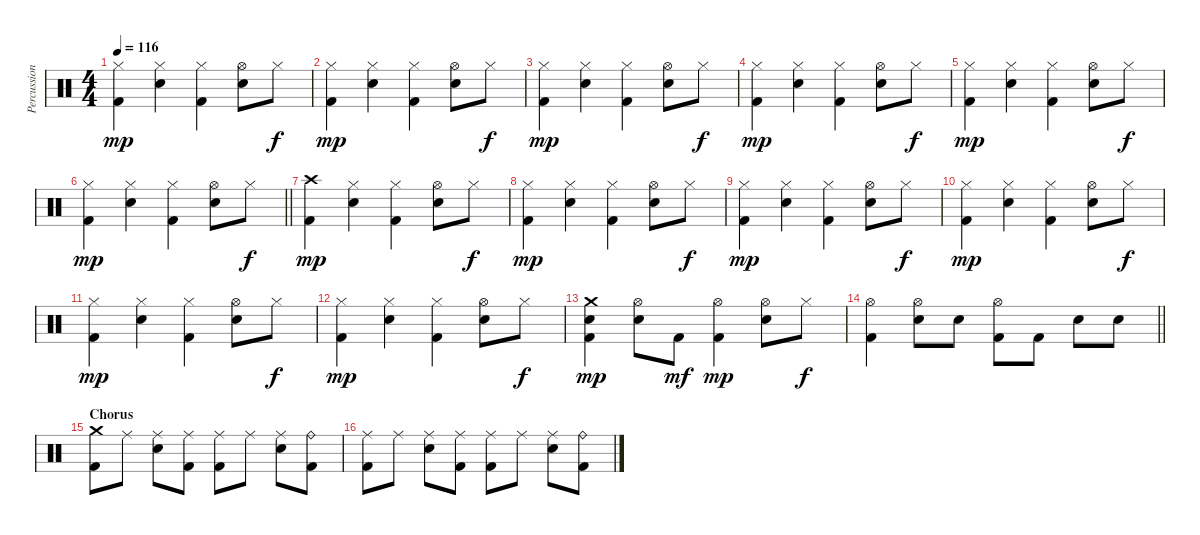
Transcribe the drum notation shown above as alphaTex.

\track ("Percussion" "Percussion") {instrument percussion}
\staff {score}
\articulation defaults
\ts (4 4)
\tempo 116
\clef neutral
\ks c
("Hi-Hat (closed)" "Kick (hit) 2").4{dy mp} ("Hi-Hat (closed)" "Snare (hit) 2").4 ("Hi-Hat (closed)" "Kick (hit) 2").4 ("Hi-Hat (open)" "Snare (hit) 2").8 "Hi-Hat (closed)".8{dy f} |
("Hi-Hat (closed)" "Kick (hit) 2").4{dy mp} ("Hi-Hat (closed)" "Snare (hit) 2").4 ("Hi-Hat (closed)" "Kick (hit) 2").4 ("Hi-Hat (open)" "Snare (hit) 2").8 "Hi-Hat (closed)".8{dy f} |
("Hi-Hat (closed)" "Kick (hit) 2").4{dy mp} ("Hi-Hat (closed)" "Snare (hit) 2").4 ("Hi-Hat (closed)" "Kick (hit) 2").4 ("Hi-Hat (open)" "Snare (hit) 2").8 "Hi-Hat (closed)".8{dy f} |
("Hi-Hat (closed)" "Kick (hit) 2").4{dy mp} ("Hi-Hat (closed)" "Snare (hit) 2").4 ("Hi-Hat (closed)" "Kick (hit) 2").4 ("Hi-Hat (open)" "Snare (hit) 2").8 "Hi-Hat (closed)".8{dy f} |
("Hi-Hat (closed)" "Kick (hit) 2").4{dy mp} ("Hi-Hat (closed)" "Snare (hit) 2").4 ("Hi-Hat (closed)" "Kick (hit) 2").4 ("Hi-Hat (open)" "Snare (hit) 2").8 "Hi-Hat (closed)".8{dy f} |
\barLineRight lightlight
("Hi-Hat (closed)" "Kick (hit) 2").4{dy mp} ("Hi-Hat (closed)" "Snare (hit) 2").4 ("Hi-Hat (closed)" "Kick (hit) 2").4 ("Hi-Hat (open)" "Snare (hit) 2").8 "Hi-Hat (closed)".8{dy f} |
("Crash high (hit)" "Kick (hit) 2").4{dy mp} ("Hi-Hat (closed)" "Snare (hit) 2").4 ("Hi-Hat (closed)" "Kick (hit) 2").4 ("Hi-Hat (open)" "Snare (hit) 2").8 "Hi-Hat (closed)".8{dy f} |
("Hi-Hat (closed)" "Kick (hit) 2").4{dy mp} ("Hi-Hat (closed)" "Snare (hit) 2").4 ("Hi-Hat (closed)" "Kick (hit) 2").4 ("Hi-Hat (open)" "Snare (hit) 2").8 "Hi-Hat (closed)".8{dy f} |
("Hi-Hat (closed)" "Kick (hit) 2").4{dy mp} ("Hi-Hat (closed)" "Snare (hit) 2").4 ("Hi-Hat (closed)" "Kick (hit) 2").4 ("Hi-Hat (open)" "Snare (hit) 2").8 "Hi-Hat (closed)".8{dy f} |
("Hi-Hat (closed)" "Kick (hit) 2").4{dy mp} ("Hi-Hat (closed)" "Snare (hit) 2").4 ("Hi-Hat (closed)" "Kick (hit) 2").4 ("Hi-Hat (open)" "Snare (hit) 2").8 "Hi-Hat (closed)".8{dy f} |
("Hi-Hat (closed)" "Kick (hit) 2").4{dy mp} ("Hi-Hat (closed)" "Snare (hit) 2").4 ("Hi-Hat (closed)" "Kick (hit) 2").4 ("Hi-Hat (open)" "Snare (hit) 2").8 "Hi-Hat (closed)".8{dy f} |
("Hi-Hat (closed)" "Kick (hit) 2").4{dy mp} ("Hi-Hat (closed)" "Snare (hit) 2").4 ("Hi-Hat (closed)" "Kick (hit) 2").4 ("Hi-Hat (open)" "Snare (hit) 2").8 "Hi-Hat (closed)".8{dy f} |
("Crash medium (hit)" "Snare (hit) 2" "Kick (hit) 2").4{dy mp} ("Hi-Hat (open)" "Snare (hit) 2").8 "Kick (hit) 2".8{dy mf} ("Hi-Hat (open)" "Kick (hit) 2").4{dy mp} ("Hi-Hat (open)" "Snare (hit) 2").8 "Hi-Hat (closed)".8{dy f} |
\barLineRight lightlight
("Hi-Hat (open)" "Kick (hit) 2").4 ("Hi-Hat (open)" "Snare (hit) 2").8 "Snare (hit) 2".8 ("Hi-Hat (open)" "Kick (hit) 2").8 "Kick (hit) 2".8 "Snare (hit) 2".8 "Snare (hit) 2".8 |
\section ("" "Chorus")
("Crash medium (hit)" "Kick (hit) 2").8 "Ride (middle)".8 ("Ride (middle)" "Snare (hit) 2").8 ("Ride (middle)" "Kick (hit) 2").8 ("Ride (middle)" "Kick (hit) 2").8 "Ride (middle)".8 ("Ride (middle)" "Snare (hit) 2").8 ("Ride (bell)" "Kick (hit) 2").8 |
("Ride (middle)" "Kick (hit) 2").8 "Ride (middle)".8 ("Ride (middle)" "Snare (hit) 2").8 ("Ride (middle)" "Kick (hit) 2").8 ("Ride (middle)" "Kick (hit) 2").8 "Ride (middle)".8 ("Ride (middle)" "Snare (hit) 2").8 ("Ride (bell)" "Kick (hit) 2").8
